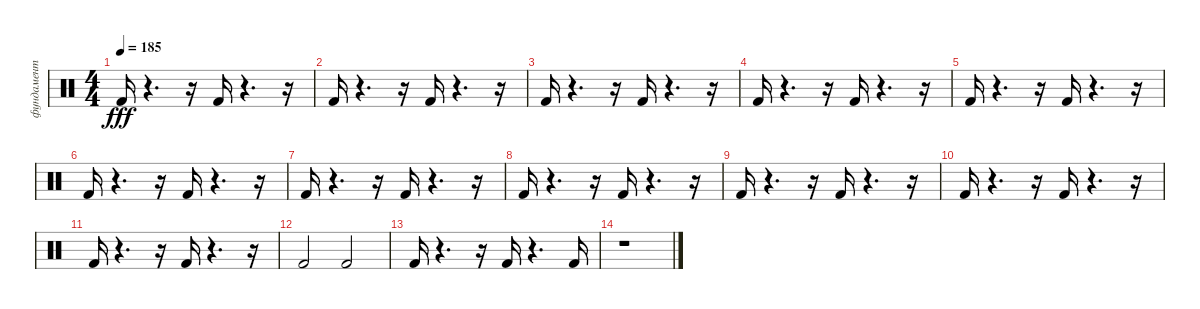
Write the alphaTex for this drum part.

\track ("фундамент" "фундамент") {instrument percussion}
\staff {score}
\articulation defaults
\ts (4 4)
\tempo 185
\clef neutral
\ks c "Kick (hit) 2".16{dy fff}
r.4{d} r.16 "Kick (hit) 2".16 r.4{d} r.16 |
"Kick (hit) 2".16 r.4{d} r.16 "Kick (hit) 2".16 r.4{d} r.16 |
"Kick (hit) 2".16 r.4{d} r.16 "Kick (hit) 2".16 r.4{d} r.16 |
"Kick (hit) 2".16 r.4{d} r.16 "Kick (hit) 2".16 r.4{d} r.16 |
"Kick (hit) 2".16 r.4{d} r.16 "Kick (hit) 2".16 r.4{d} r.16 |
"Kick (hit) 2".16 r.4{d} r.16 "Kick (hit) 2".16 r.4{d} r.16 |
"Kick (hit) 2".16 r.4{d} r.16 "Kick (hit) 2".16 r.4{d} r.16 |
"Kick (hit) 2".16 r.4{d} r.16 "Kick (hit) 2".16 r.4{d} r.16 |
"Kick (hit) 2".16 r.4{d} r.16 "Kick (hit) 2".16 r.4{d} r.16 |
"Kick (hit) 2".16 r.4{d} r.16 "Kick (hit) 2".16 r.4{d} r.16 |
"Kick (hit) 2".16 r.4{d} r.16 "Kick (hit) 2".16 r.4{d} r.16 |
"Kick (hit) 2".2 "Kick (hit) 2".2 |
"Kick (hit) 2".16 r.4{d} r.16 "Kick (hit) 2".16 r.4{d} "Kick (hit) 2".16 |
r.1
